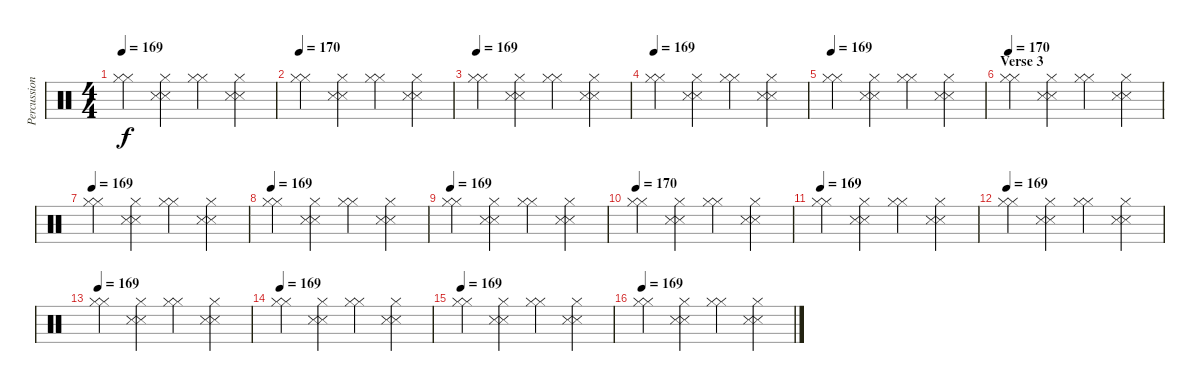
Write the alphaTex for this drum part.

\track ("Percussion" "Percussion") {instrument percussion}
\staff {score}
\articulation defaults
\ts (4 4)
\tempo 169
\clef neutral
\ks c
("Hi-Hat (closed)" "Hi-Hat (closed)").4{dy f} ("Hi-Hat (closed)" "Snare (side stick) 3" "Snare (side stick) 3").4 ("Hi-Hat (closed)" "Hi-Hat (closed)").4 ("Hi-Hat (closed)" "Snare (side stick) 3" "Snare (side stick) 3").4 |
\tempo 169
\tempo 170
("Hi-Hat (closed)" "Hi-Hat (closed)").4 ("Hi-Hat (closed)" "Snare (side stick) 3" "Snare (side stick) 3").4 ("Hi-Hat (closed)" "Hi-Hat (closed)").4 ("Hi-Hat (closed)" "Snare (side stick) 3" "Snare (side stick) 3").4 |
\tempo 169
("Hi-Hat (closed)" "Hi-Hat (closed)").4 ("Hi-Hat (closed)" "Snare (side stick) 3" "Snare (side stick) 3").4 ("Hi-Hat (closed)" "Hi-Hat (closed)").4 ("Hi-Hat (closed)" "Snare (side stick) 3" "Snare (side stick) 3").4 |
\tempo 169
("Hi-Hat (closed)" "Hi-Hat (closed)").4 ("Hi-Hat (closed)" "Snare (side stick) 3" "Snare (side stick) 3").4 ("Hi-Hat (closed)" "Hi-Hat (closed)").4 ("Hi-Hat (closed)" "Snare (side stick) 3" "Snare (side stick) 3").4 |
\tempo 169
("Hi-Hat (closed)" "Hi-Hat (closed)").4 ("Hi-Hat (closed)" "Snare (side stick) 3" "Snare (side stick) 3").4 ("Hi-Hat (closed)" "Hi-Hat (closed)").4 ("Hi-Hat (closed)" "Snare (side stick) 3" "Snare (side stick) 3").4 |
\section ("" "Verse 3")
\tempo 169
\tempo 170
("Hi-Hat (closed)" "Hi-Hat (closed)").4 ("Hi-Hat (closed)" "Snare (side stick) 3" "Snare (side stick) 3").4 ("Hi-Hat (closed)" "Hi-Hat (closed)").4 ("Hi-Hat (closed)" "Snare (side stick) 3" "Snare (side stick) 3").4 |
\tempo 169
("Hi-Hat (closed)" "Hi-Hat (closed)").4 ("Hi-Hat (closed)" "Snare (side stick) 3" "Snare (side stick) 3").4 ("Hi-Hat (closed)" "Hi-Hat (closed)").4 ("Hi-Hat (closed)" "Snare (side stick) 3" "Snare (side stick) 3").4 |
\tempo 169
("Hi-Hat (closed)" "Hi-Hat (closed)").4 ("Hi-Hat (closed)" "Snare (side stick) 3" "Snare (side stick) 3").4 ("Hi-Hat (closed)" "Hi-Hat (closed)").4 ("Hi-Hat (closed)" "Snare (side stick) 3" "Snare (side stick) 3").4 |
\tempo 169
("Hi-Hat (closed)" "Hi-Hat (closed)").4 ("Hi-Hat (closed)" "Snare (side stick) 3" "Snare (side stick) 3").4 ("Hi-Hat (closed)" "Hi-Hat (closed)").4 ("Hi-Hat (closed)" "Snare (side stick) 3" "Snare (side stick) 3").4 |
\tempo 169
\tempo 170
("Hi-Hat (closed)" "Hi-Hat (closed)").4 ("Hi-Hat (closed)" "Snare (side stick) 3" "Snare (side stick) 3").4 ("Hi-Hat (closed)" "Hi-Hat (closed)").4 ("Hi-Hat (closed)" "Snare (side stick) 3" "Snare (side stick) 3").4 |
\tempo 169
("Hi-Hat (closed)" "Hi-Hat (closed)").4 ("Hi-Hat (closed)" "Snare (side stick) 3" "Snare (side stick) 3").4 ("Hi-Hat (closed)" "Hi-Hat (closed)").4 ("Hi-Hat (closed)" "Snare (side stick) 3" "Snare (side stick) 3").4 |
\tempo 169
("Hi-Hat (closed)" "Hi-Hat (closed)").4 ("Hi-Hat (closed)" "Snare (side stick) 3" "Snare (side stick) 3").4 ("Hi-Hat (closed)" "Hi-Hat (closed)").4 ("Hi-Hat (closed)" "Snare (side stick) 3" "Snare (side stick) 3").4 |
\tempo 169
("Hi-Hat (closed)" "Hi-Hat (closed)").4 ("Hi-Hat (closed)" "Snare (side stick) 3" "Snare (side stick) 3").4 ("Hi-Hat (closed)" "Hi-Hat (closed)").4 ("Hi-Hat (closed)" "Snare (side stick) 3" "Snare (side stick) 3").4 |
\tempo 169
("Hi-Hat (closed)" "Hi-Hat (closed)").4 ("Hi-Hat (closed)" "Snare (side stick) 3" "Snare (side stick) 3").4 ("Hi-Hat (closed)" "Hi-Hat (closed)").4 ("Hi-Hat (closed)" "Snare (side stick) 3" "Snare (side stick) 3").4 |
\tempo 169
("Hi-Hat (closed)" "Hi-Hat (closed)").4 ("Hi-Hat (closed)" "Snare (side stick) 3" "Snare (side stick) 3").4 ("Hi-Hat (closed)" "Hi-Hat (closed)").4 ("Hi-Hat (closed)" "Snare (side stick) 3" "Snare (side stick) 3").4 |
\tempo 169
("Hi-Hat (closed)" "Hi-Hat (closed)").4 ("Hi-Hat (closed)" "Snare (side stick) 3" "Snare (side stick) 3").4 ("Hi-Hat (closed)" "Hi-Hat (closed)").4 ("Hi-Hat (closed)" "Snare (side stick) 3" "Snare (side stick) 3").4
